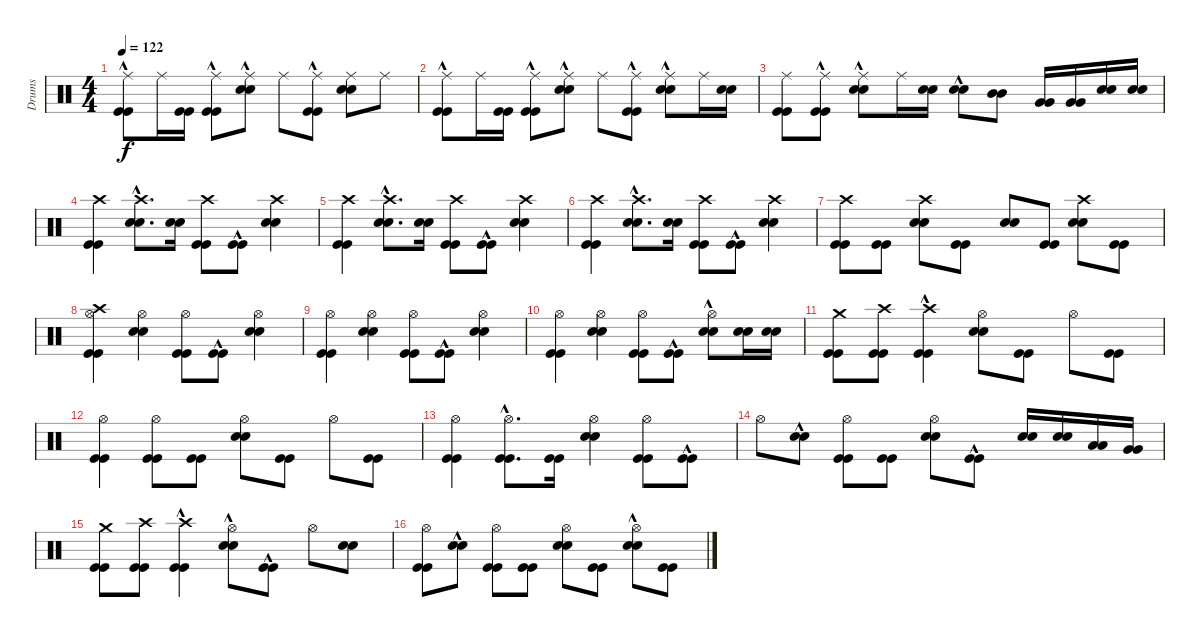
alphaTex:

\track ("Drums" "Drums") {instrument percussion}
\staff {score}
\articulation defaults
\ts (4 4)
\tempo 122
\clef neutral
\ks c
("Kick (hit)"{hac} "Kick (hit)"{hac} "Ride (middle)").8{dy f} "Ride (middle)".16 ("Kick (hit)" "Kick (hit)").16 ("Kick (hit)"{hac} "Kick (hit)"{hac} "Ride (middle)").8 ("Snare (hit) 2"{hac} "Snare (hit) 2"{hac} "Ride (middle)").8 "Ride (middle)".8 ("Kick (hit)"{hac} "Kick (hit)"{hac} "Ride (middle)").8 ("Snare (hit) 2" "Snare (hit) 2" "Ride (middle)").8 "Ride (middle)".8 |
("Kick (hit)"{hac} "Kick (hit)"{hac} "Ride (middle)").8 "Ride (middle)".16 ("Kick (hit)" "Kick (hit)").16 ("Kick (hit)"{hac} "Kick (hit)"{hac} "Ride (middle)").8 ("Snare (hit) 2"{hac} "Snare (hit) 2"{hac} "Ride (middle)").8 "Ride (middle)".8 ("Kick (hit)"{hac} "Kick (hit)"{hac} "Ride (middle)").8 ("Snare (hit) 2"{hac} "Snare (hit) 2"{hac} "Ride (middle)").8 "Ride (middle)".16 ("Snare (hit) 2" "Snare (hit) 2").16 |
("Kick (hit)" "Kick (hit)" "Ride (middle)").8 ("Kick (hit)"{hac} "Kick (hit)"{hac} "Ride (middle)").8 ("Snare (hit) 2"{hac} "Snare (hit) 2"{hac} "Ride (middle)").8 "Ride (middle)".16 ("Snare (hit) 2" "Snare (hit) 2").16 ("Snare (hit) 2"{hac} "Snare (hit) 2"{hac}).8 ("Mid Tom (hit)" "Mid Tom (hit)").8 ("Very Low Tom (hit)" "Very Low Tom (hit)").16 ("Very Low Tom (hit)" "Very Low Tom (hit)").16 ("Snare (hit) 2" "Snare (hit) 2").16 ("Snare (hit) 2" "Snare (hit) 2").16 |
("Kick (hit)" "Kick (hit)" "Crash high (hit)").4 ("Snare (hit) 2"{hac} "Snare (hit) 2"{hac} "Crash high (hit)").8{d} ("Snare (hit) 2" "Snare (hit) 2").16 ("Kick (hit)" "Kick (hit)" "Crash high (hit)").8 ("Kick (hit)"{hac} "Kick (hit)"{hac}).8 ("Snare (hit) 2" "Snare (hit) 2" "Crash high (hit)").4 |
("Kick (hit)" "Kick (hit)" "Crash high (hit)").4 ("Snare (hit) 2"{hac} "Snare (hit) 2"{hac} "Crash high (hit)").8{d} ("Snare (hit) 2" "Snare (hit) 2").16 ("Kick (hit)" "Kick (hit)" "Crash high (hit)").8 ("Kick (hit)"{hac} "Kick (hit)"{hac}).8 ("Snare (hit) 2" "Snare (hit) 2" "Crash high (hit)").4 |
("Kick (hit)" "Kick (hit)" "Crash high (hit)").4 ("Snare (hit) 2"{hac} "Snare (hit) 2"{hac} "Crash high (hit)").8{d} ("Snare (hit) 2" "Snare (hit) 2").16 ("Kick (hit)" "Kick (hit)" "Crash high (hit)").8 ("Kick (hit)"{hac} "Kick (hit)"{hac}).8 ("Snare (hit) 2" "Snare (hit) 2" "Crash high (hit)").4 |
("Kick (hit)" "Kick (hit)" "Crash high (hit)").8 ("Kick (hit)" "Kick (hit)").8 ("Snare (hit) 2" "Snare (hit) 2" "Crash high (hit)").8 ("Kick (hit)" "Kick (hit)").8 ("Snare (hit) 2" "Snare (hit) 2").8 ("Kick (hit)" "Kick (hit)").8 ("Snare (hit) 2" "Snare (hit) 2" "Crash high (hit)").8 ("Kick (hit)" "Kick (hit)").8 |
("Kick (hit)" "Kick (hit)" "Hi-Hat (open)" "Crash high (hit)").4 ("Snare (hit) 2" "Snare (hit) 2" "Hi-Hat (open)").4 ("Kick (hit)" "Kick (hit)" "Hi-Hat (open)").8 ("Kick (hit)"{hac} "Kick (hit)"{hac}).8 ("Snare (hit) 2" "Snare (hit) 2" "Hi-Hat (open)").4 |
("Kick (hit)" "Kick (hit)" "Hi-Hat (open)").4 ("Snare (hit) 2" "Snare (hit) 2" "Hi-Hat (open)").4 ("Kick (hit)" "Kick (hit)" "Hi-Hat (open)").8 ("Kick (hit)"{hac} "Kick (hit)"{hac}).8 ("Snare (hit) 2" "Snare (hit) 2" "Hi-Hat (open)").4 |
("Kick (hit)" "Kick (hit)" "Hi-Hat (open)").4 ("Snare (hit) 2" "Snare (hit) 2" "Hi-Hat (open)").4 ("Kick (hit)" "Kick (hit)" "Hi-Hat (open)").8 ("Kick (hit)"{hac} "Kick (hit)"{hac}).8 ("Snare (hit) 2" "Snare (hit) 2" "Hi-Hat (open)"{hac}).8 ("Snare (hit) 2" "Snare (hit) 2").16 ("Snare (hit) 2" "Snare (hit) 2").16 |
("Kick (hit)" "Kick (hit)" "Crash medium (hit)").8 ("Kick (hit)" "Kick (hit)" "Crash high (hit)").8 ("Kick (hit)"{hac} "Kick (hit)"{hac} "Crash high (hit)").4 ("Snare (hit) 2" "Snare (hit) 2" "Hi-Hat (open)").8 ("Kick (hit)" "Kick (hit)").8 "Hi-Hat (open)".8 ("Kick (hit)" "Kick (hit)").8 |
("Kick (hit)" "Kick (hit)" "Hi-Hat (open)").4 ("Kick (hit)" "Kick (hit)" "Hi-Hat (open)").8 ("Kick (hit)" "Kick (hit)").8 ("Snare (hit) 2" "Snare (hit) 2" "Hi-Hat (open)").8 ("Kick (hit)" "Kick (hit)").8 "Hi-Hat (open)".8 ("Kick (hit)" "Kick (hit)").8 |
("Kick (hit)" "Kick (hit)" "Hi-Hat (open)").4 ("Kick (hit)"{hac} "Kick (hit)"{hac} "Hi-Hat (open)").8{d} ("Kick (hit)" "Kick (hit)").16 ("Snare (hit) 2" "Snare (hit) 2" "Hi-Hat (open)").4 ("Kick (hit)" "Kick (hit)" "Hi-Hat (open)").8 ("Kick (hit)"{hac} "Kick (hit)"{hac}).8 |
"Hi-Hat (open)".8 ("Snare (hit) 2"{hac} "Snare (hit) 2"{hac}).8 ("Kick (hit)" "Kick (hit)" "Hi-Hat (open)").8 ("Kick (hit)" "Kick (hit)").8 ("Snare (hit) 2" "Snare (hit) 2" "Hi-Hat (open)").8 ("Kick (hit)"{hac} "Kick (hit)"{hac}).8 ("Snare (hit) 2" "Snare (hit) 2").16 ("Snare (hit) 2" "Snare (hit) 2").16 ("Low Tom (hit)" "Low Tom (hit)").16 ("Very Low Tom (hit)" "Very Low Tom (hit)").16 |
("Kick (hit)" "Kick (hit)" "Crash medium (hit)").8 ("Kick (hit)" "Kick (hit)" "Crash high (hit)").8 ("Kick (hit)"{hac} "Kick (hit)"{hac} "Crash high (hit)").4 ("Snare (hit) 2"{hac} "Snare (hit) 2"{hac} "Hi-Hat (open)").8 ("Kick (hit)"{hac} "Kick (hit)"{hac}).8 "Hi-Hat (open)".8 ("Snare (hit) 2" "Snare (hit) 2").8 |
("Kick (hit)" "Kick (hit)" "Hi-Hat (open)").8 ("Snare (hit) 2"{hac} "Snare (hit) 2"{hac}).8 ("Kick (hit)" "Kick (hit)" "Hi-Hat (open)").8 ("Kick (hit)" "Kick (hit)").8 ("Snare (hit) 2" "Snare (hit) 2" "Hi-Hat (open)").8 ("Kick (hit)" "Kick (hit)").8 ("Snare (hit) 2"{hac} "Snare (hit) 2"{hac} "Hi-Hat (open)").8 ("Kick (hit)" "Kick (hit)").8
